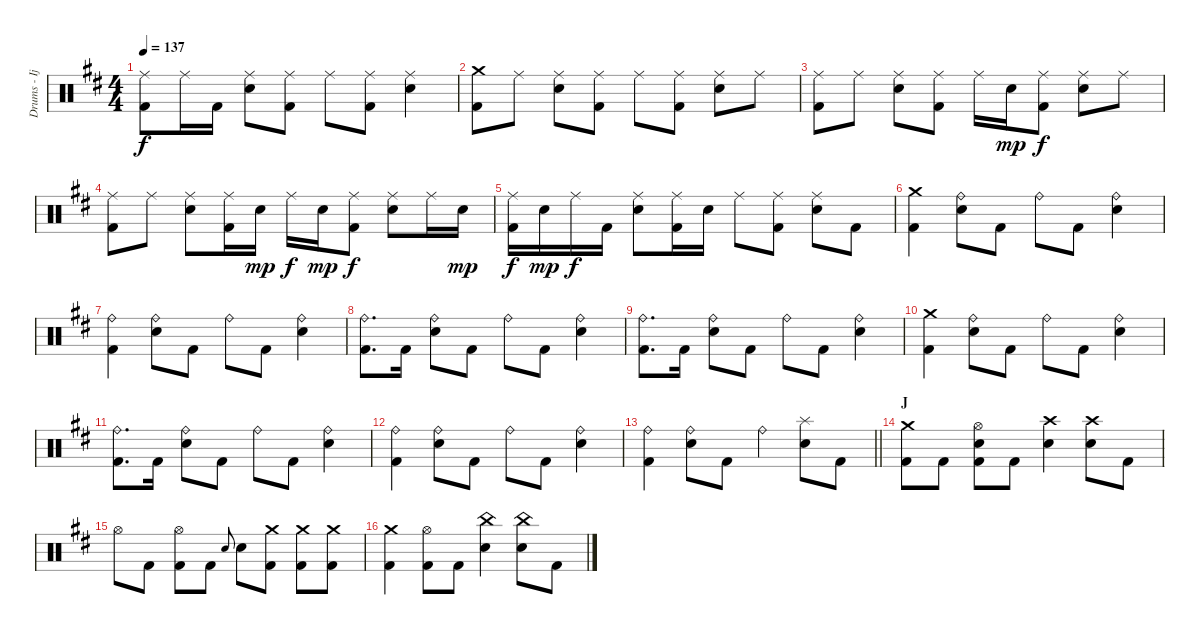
\track ("Drums - Ijichi" "Drums - Ij") {instrument percussion}
\staff {score}
\articulation defaults
\ts (4 4)
\tempo 137
\clef neutral
\ks d
("Ride (middle)" "Kick (hit) 2").8{dy f} "Ride (middle)".16 "Kick (hit) 2".16 ("Ride (middle)" "Electric Snare (hit)").8 ("Ride (middle)" "Kick (hit) 2").8 "Ride (middle)".8 ("Ride (middle)" "Kick (hit) 2").8 ("Ride (middle)" "Electric Snare (hit)").4 |
("Crash medium (hit)" "Kick (hit) 2").8 "Ride (middle)".8 ("Ride (middle)" "Electric Snare (hit)").8 ("Ride (middle)" "Kick (hit) 2").8 "Ride (middle)".8 ("Ride (middle)" "Kick (hit) 2").8 ("Ride (middle)" "Electric Snare (hit)").8 "Ride (middle)".8 |
("Ride (middle)" "Kick (hit) 2").8 "Ride (middle)".8 ("Ride (middle)" "Electric Snare (hit)").8 ("Ride (middle)" "Kick (hit) 2").8 "Ride (middle)".16 "Electric Snare (hit)".16{dy mp} ("Ride (middle)" "Kick (hit) 2").8{dy f} ("Ride (middle)" "Electric Snare (hit)").8 "Ride (middle)".8 |
("Ride (middle)" "Kick (hit) 2").8 "Ride (middle)".8 ("Ride (middle)" "Electric Snare (hit)").8 ("Ride (middle)" "Kick (hit) 2").16 "Electric Snare (hit)".16{dy mp} "Ride (middle)".16{dy f} "Electric Snare (hit)".16{dy mp} ("Ride (middle)" "Kick (hit) 2").8{dy f} ("Ride (middle)" "Electric Snare (hit)").8 "Ride (middle)".16 "Electric Snare (hit)".16{dy mp} |
("Ride (middle)" "Kick (hit) 2").16{dy f} "Electric Snare (hit)".16{dy mp} "Ride (middle)".16{dy f} "Kick (hit) 2".16 ("Ride (middle)" "Electric Snare (hit)").8 ("Ride (middle)" "Kick (hit) 2").16 "Electric Snare (hit)".16 "Ride (middle)".8 ("Ride (middle)" "Kick (hit) 2").8 ("Ride (middle)" "Electric Snare (hit)").8 "Kick (hit) 2".8 |
("Crash medium (hit)" "Kick (hit) 2").4 ("Ride (bell)" "Electric Snare (hit)").8 "Kick (hit) 2".8 "Ride (bell)".8 "Kick (hit) 2".8 ("Ride (bell)" "Electric Snare (hit)").4 |
("Ride (bell)" "Kick (hit) 2").4 ("Ride (bell)" "Electric Snare (hit)").8 "Kick (hit) 2".8 "Ride (bell)".8 "Kick (hit) 2".8 ("Ride (bell)" "Electric Snare (hit)").4 |
("Ride (bell)" "Kick (hit) 2").8{d} "Kick (hit) 2".16 ("Ride (bell)" "Electric Snare (hit)").8 "Kick (hit) 2".8 "Ride (bell)".8 "Kick (hit) 2".8 ("Ride (bell)" "Electric Snare (hit)").4 |
("Ride (bell)" "Kick (hit) 2").8{d} "Kick (hit) 2".16 ("Ride (bell)" "Electric Snare (hit)").8 "Kick (hit) 2".8 "Ride (bell)".8 "Kick (hit) 2".8 ("Ride (bell)" "Electric Snare (hit)").4 |
("Crash medium (hit)" "Kick (hit) 2").4 ("Ride (bell)" "Electric Snare (hit)").8 "Kick (hit) 2".8 "Ride (bell)".8 "Kick (hit) 2".8 ("Ride (bell)" "Electric Snare (hit)").4 |
("Ride (bell)" "Kick (hit) 2").8{d} "Kick (hit) 2".16 ("Ride (bell)" "Electric Snare (hit)").8 "Kick (hit) 2".8 "Ride (bell)".8 "Kick (hit) 2".8 ("Ride (bell)" "Electric Snare (hit)").4 |
("Ride (bell)" "Kick (hit) 2").4 ("Ride (bell)" "Electric Snare (hit)").8 "Kick (hit) 2".8 "Ride (bell)".8 "Kick (hit) 2".8 ("Ride (bell)" "Electric Snare (hit)").4 |
\barLineRight lightlight
("Ride (bell)" "Kick (hit) 2").4 ("Ride (bell)" "Electric Snare (hit)").8 "Kick (hit) 2".8 "Ride (bell)".4 ("Splash (hit)" "Electric Snare (hit)").8 "Kick (hit) 2".8 |
\section ("" "J")
("Crash medium (hit)" "Kick (hit) 2").8 "Kick (hit) 2".8 ("Hi-Hat (open)" "Electric Snare (hit)" "Kick (hit) 2").8 "Kick (hit) 2".8 ("Crash high (hit)" "Electric Snare (hit)").4 ("Crash high (hit)" "Electric Snare (hit)").8 "Kick (hit) 2".8 |
"Hi-Hat (open)".8 "Kick (hit) 2".8 ("Hi-Hat (open)" "Kick (hit) 2").8 "Kick (hit) 2".8 "Electric Snare (hit)".8{gr onbeat} "Electric Snare (hit)".8 ("Crash medium (hit)" "Kick (hit) 2").8 ("Crash medium (hit)" "Kick (hit) 2").8 ("Crash medium (hit)" "Kick (hit) 2").8 |
("Crash medium (hit)" "Kick (hit) 2").4 ("Hi-Hat (open)" "Kick (hit) 2").8 "Kick (hit) 2".8 ("China (hit)" "Electric Snare (hit)").4 ("China (hit)" "Electric Snare (hit)").8 "Kick (hit) 2".8
